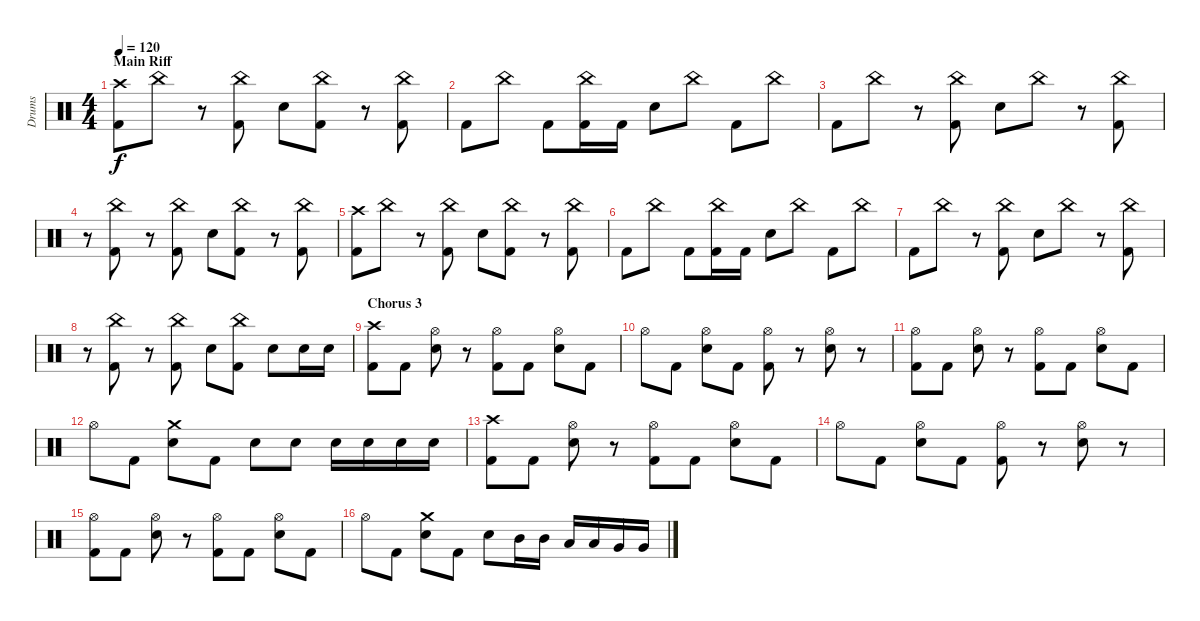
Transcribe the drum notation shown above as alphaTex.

\track ("Drums" "Drums") {instrument percussion}
\staff {score}
\articulation defaults
\ts (4 4)
\section ("" "Main Riff")
\tempo 120
\clef neutral
\ks c
("Crash high (hit)" "Kick (hit) 2").8{dy f} "China (hit)".8 r.8 ("China (hit)" "Kick (hit) 2").8 "Snare (hit) 2".8 ("China (hit)" "Kick (hit) 2").8 r.8 ("China (hit)" "Kick (hit) 2").8 |
"Kick (hit) 2".8 "China (hit)".8 "Kick (hit) 2".8 ("China (hit)" "Kick (hit) 2").16 "Kick (hit) 2".16 "Snare (hit) 2".8 "China (hit)".8 "Kick (hit) 2".8 "China (hit)".8 |
"Kick (hit) 2".8 "China (hit)".8 r.8 ("China (hit)" "Kick (hit) 2").8 "Snare (hit) 2".8 "China (hit)".8 r.8 ("China (hit)" "Kick (hit) 2").8 |
r.8 ("China (hit)" "Kick (hit) 2").8 r.8 ("China (hit)" "Kick (hit) 2").8 "Snare (hit) 2".8 ("China (hit)" "Kick (hit) 2").8 r.8 ("China (hit)" "Kick (hit) 2").8 |
("Crash high (hit)" "Kick (hit) 2").8 "China (hit)".8 r.8 ("China (hit)" "Kick (hit) 2").8 "Snare (hit) 2".8 ("China (hit)" "Kick (hit) 2").8 r.8 ("China (hit)" "Kick (hit) 2").8 |
"Kick (hit) 2".8 "China (hit)".8 "Kick (hit) 2".8 ("China (hit)" "Kick (hit) 2").16 "Kick (hit) 2".16 "Snare (hit) 2".8 "China (hit)".8 "Kick (hit) 2".8 "China (hit)".8 |
"Kick (hit) 2".8 "China (hit)".8 r.8 ("China (hit)" "Kick (hit) 2").8 "Snare (hit) 2".8 "China (hit)".8 r.8 ("China (hit)" "Kick (hit) 2").8 |
r.8 ("China (hit)" "Kick (hit) 2").8 r.8 ("China (hit)" "Kick (hit) 2").8 "Snare (hit) 2".8 ("China (hit)" "Kick (hit) 2").8 "Snare (hit) 2".8 "Snare (hit) 2".16 "Snare (hit) 2".16 |
\section ("" "Chorus 3")
("Crash high (hit)" "Kick (hit) 2").8 "Kick (hit) 2".8 ("Hi-Hat (open)" "Snare (hit) 2").8 r.8 ("Hi-Hat (open)" "Kick (hit) 2").8 "Kick (hit) 2".8 ("Hi-Hat (open)" "Snare (hit) 2").8 "Kick (hit) 2".8 |
"Hi-Hat (open)".8 "Kick (hit) 2".8 ("Hi-Hat (open)" "Snare (hit) 2").8 "Kick (hit) 2".8 ("Hi-Hat (open)" "Kick (hit) 2").8 r.8 ("Hi-Hat (open)" "Snare (hit) 2").8 r.8 |
("Hi-Hat (open)" "Kick (hit) 2").8 "Kick (hit) 2".8 ("Hi-Hat (open)" "Snare (hit) 2").8 r.8 ("Hi-Hat (open)" "Kick (hit) 2").8 "Kick (hit) 2".8 ("Hi-Hat (open)" "Snare (hit) 2").8 "Kick (hit) 2".8 |
"Hi-Hat (open)".8 "Kick (hit) 2".8 ("Crash medium (hit)" "Snare (hit) 2").8 "Kick (hit) 2".8 "Snare (hit) 2".8 "Snare (hit) 2".8 "Snare (hit) 2".16 "Snare (hit) 2".16 "Snare (hit) 2".16 "Snare (hit) 2".16 |
("Crash high (hit)" "Kick (hit) 2").8 "Kick (hit) 2".8 ("Hi-Hat (open)" "Snare (hit) 2").8 r.8 ("Hi-Hat (open)" "Kick (hit) 2").8 "Kick (hit) 2".8 ("Hi-Hat (open)" "Snare (hit) 2").8 "Kick (hit) 2".8 |
"Hi-Hat (open)".8 "Kick (hit) 2".8 ("Hi-Hat (open)" "Snare (hit) 2").8 "Kick (hit) 2".8 ("Hi-Hat (open)" "Kick (hit) 2").8 r.8 ("Hi-Hat (open)" "Snare (hit) 2").8 r.8 |
("Hi-Hat (open)" "Kick (hit) 2").8 "Kick (hit) 2".8 ("Hi-Hat (open)" "Snare (hit) 2").8 r.8 ("Hi-Hat (open)" "Kick (hit) 2").8 "Kick (hit) 2".8 ("Hi-Hat (open)" "Snare (hit) 2").8 "Kick (hit) 2".8 |
"Hi-Hat (open)".8 "Kick (hit) 2".8 ("Crash medium (hit)" "Snare (hit) 2").8 "Kick (hit) 2".8 "Snare (hit) 2".8 "Mid Tom (hit)".16 "Mid Tom (hit)".16 "Low Tom (hit)".16 "Low Tom (hit)".16 "Very Low Tom (hit)".16 "Very Low Tom (hit)".16
